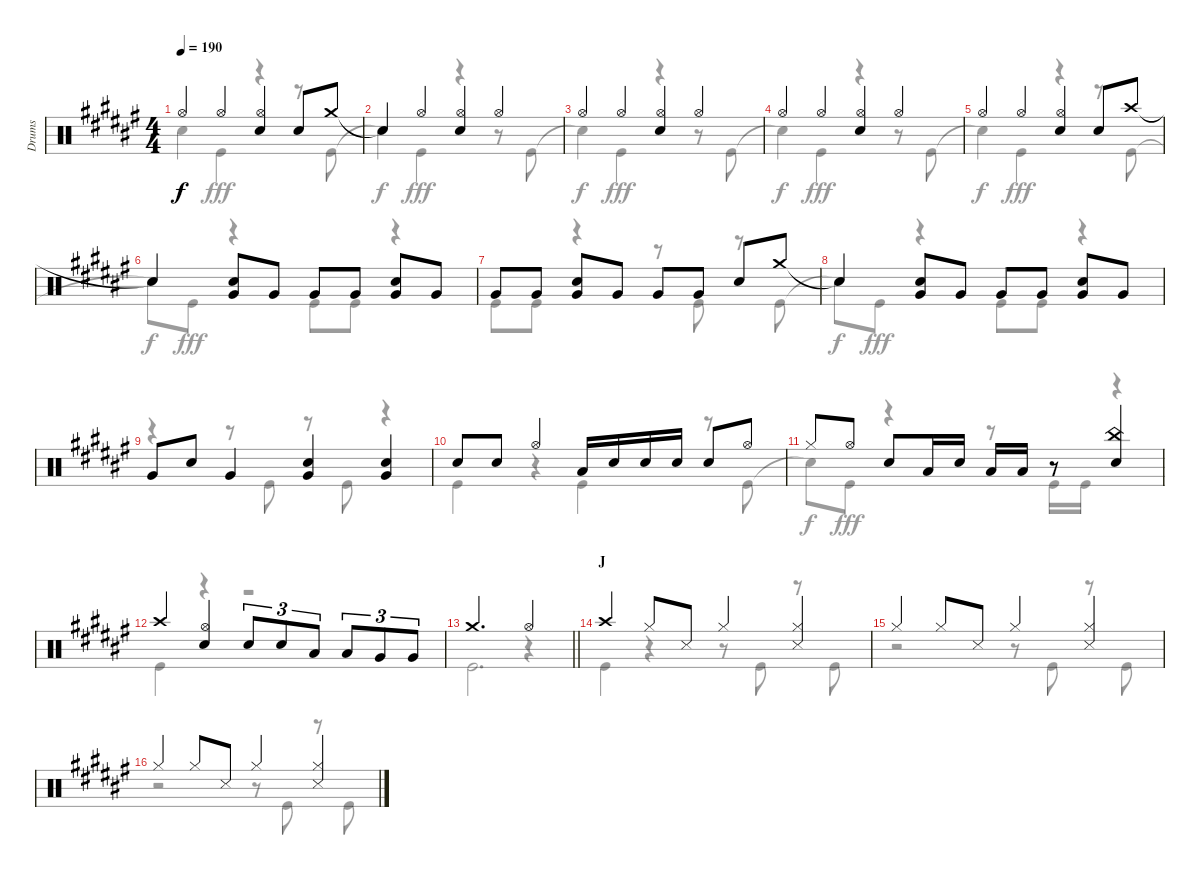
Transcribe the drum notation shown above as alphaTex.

\track ("Drums" "Drums") {instrument percussion}
\staff {score}
\articulation defaults
\voice
\ts (4 4)
\tempo 190
\clef neutral
\ks f# "Hi-Hat (open)".4{dy f} "Hi-Hat (open)".4
("Hi-Hat (open)" "Snare (hit) 2").4 "Snare (hit) 2".8 "Crash medium (hit)".8 |
"Snare (hit)"{t}.4 "Hi-Hat (open)".4 ("Hi-Hat (open)" "Snare (hit) 2").4 "Hi-Hat (open)".4 |
"Hi-Hat (open)".4 "Hi-Hat (open)".4 ("Hi-Hat (open)" "Snare (hit) 2").4 "Hi-Hat (open)".4 |
"Hi-Hat (open)".4 "Hi-Hat (open)".4 ("Hi-Hat (open)" "Snare (hit) 2").4 "Hi-Hat (open)".4 |
"Hi-Hat (open)".4 "Hi-Hat (open)".4 ("Hi-Hat (open)" "Snare (hit) 2").4 "Snare (hit) 2".8 "Crash high (hit)".8 |
"Snare (hit)"{t}.4 ("Snare (hit) 2" "Very Low Tom (hit)").8 "Very Low Tom (hit)".8 "Very Low Tom (hit)".8 "Very Low Tom (hit)".8 ("Snare (hit) 2" "Very Low Tom (hit)").8 "Very Low Tom (hit)".8 |
"Very Low Tom (hit)".8 "Very Low Tom (hit)".8 ("Snare (hit) 2" "Very Low Tom (hit)").8 "Very Low Tom (hit)".8 "Very Low Tom (hit)".8 "Very Low Tom (hit)".8 "Snare (hit) 2".8 "Crash medium (hit)".8 |
"Snare (hit)"{t}.4 ("Snare (hit) 2" "Very Low Tom (hit)").8 "Very Low Tom (hit)".8 "Very Low Tom (hit)".8 "Very Low Tom (hit)".8 ("Snare (hit) 2" "Very Low Tom (hit)").8 "Very Low Tom (hit)".8 |
"Very Low Tom (hit)".8 "Snare (hit) 2".8 "Very Low Tom (hit)".4 ("Snare (hit) 2" "Very Low Tom (hit)").4 ("Snare (hit) 2" "Very Low Tom (hit)").4 |
"Snare (hit) 2".8 "Snare (hit) 2".8 "Hi-Hat (open)".4 "Low Tom (hit)".16 "Snare (hit) 2".16 "Snare (hit) 2".16 "Snare (hit) 2".16 "Snare (hit) 2".8 "Hi-Hat (open)".8 |
"Hi-Hat (closed)".8 "Hi-Hat (open)".8 "Snare (hit) 2".8 "Low Tom (hit)".16 "Snare (hit) 2".16 "Low Tom (hit)".16 "Low Tom (hit)".16 r.8 ("China (hit)" "Snare (hit) 2").4 |
"Crash high (hit)".4 ("Hi-Hat (open)" "Snare (hit) 2").4 "Snare (hit) 2".8{tu (3 2)} "Snare (hit) 2".8{tu (3 2)} "Low Tom (hit)".8{tu (3 2)} "Low Tom (hit)".8{tu (3 2)} "Very Low Tom (hit)".8{tu (3 2)} "Very Low Tom (hit)".8{tu (3 2)} |
\barLineRight lightlight "Crash medium (hit)".2{d} "Hi-Hat (open)".4
|
\section ("" "J")
"Crash high (hit)".4 "Hi-Hat (closed)".8 "Snare (side stick) 3".8 "Hi-Hat (closed)".4 ("Hi-Hat (closed)" "Snare (side stick) 3").4 |
"Hi-Hat (closed)".4 "Hi-Hat (closed)".8 "Snare (side stick) 3".8 "Hi-Hat (closed)".4 ("Hi-Hat (closed)" "Snare (side stick) 3").4 |
"Hi-Hat (closed)".4 "Hi-Hat (closed)".8 "Snare (side stick) 3".8 "Hi-Hat (closed)".4 ("Hi-Hat (closed)" "Snare (side stick) 3").4
\voice
\clef neutral
\ottava regular
\simile none
\ks f# "Snare (hit)"{t}.4{dy f} "Kick (hit)".4{dy fff}
r.4 r.8 "Kick (hit)".8 |
"Snare (hit)"{t}.4{dy f} "Kick (hit)".4{dy fff} r.4 r.8 "Kick (hit)".8 |
"Snare (hit)"{t}.4{dy f} "Kick (hit)".4{dy fff} r.4 r.8 "Kick (hit)".8 |
"Snare (hit)"{t}.4{dy f} "Kick (hit)".4{dy fff} r.4 r.8 "Kick (hit)".8 |
"Snare (hit)"{t}.4{dy f} "Kick (hit)".4{dy fff} r.4 r.8 "Kick (hit)".8 |
"Snare (hit)"{t}.8{dy f} "Kick (hit)".8{dy fff} r.4 "Kick (hit)".8 "Kick (hit)".8 r.4 |
"Kick (hit)".8 "Kick (hit)".8 r.4 r.8 "Kick (hit)".8 r.8 "Kick (hit)".8 |
"Snare (hit)"{t}.8{dy f} "Kick (hit)".8{dy fff} r.4 "Kick (hit)".8 "Kick (hit)".8 r.4 |
r.4 r.8 "Kick (hit)".8 r.8 "Kick (hit)".8 r.4 |
"Kick (hit)".4 r.4 "Kick (hit)".4 r.8 "Kick (hit)".8 |
"Snare (hit)"{t}.8{dy f} "Kick (hit)".8{dy fff} r.4 r.8 "Kick (hit)".16 "Kick (hit)".16 r.4 |
"Kick (hit)".4 r.4 r.2 |
\barLineRight lightlight "Kick (hit)".2{d}
r.4 |
"Kick (hit)".4 r.4 r.8 "Kick (hit)".8 r.8 "Kick (hit)".8 |
r.2 r.8 "Kick (hit)".8 r.8 "Kick (hit)".8 |
r.2 r.8 "Kick (hit)".8 r.8 "Kick (hit)".8
